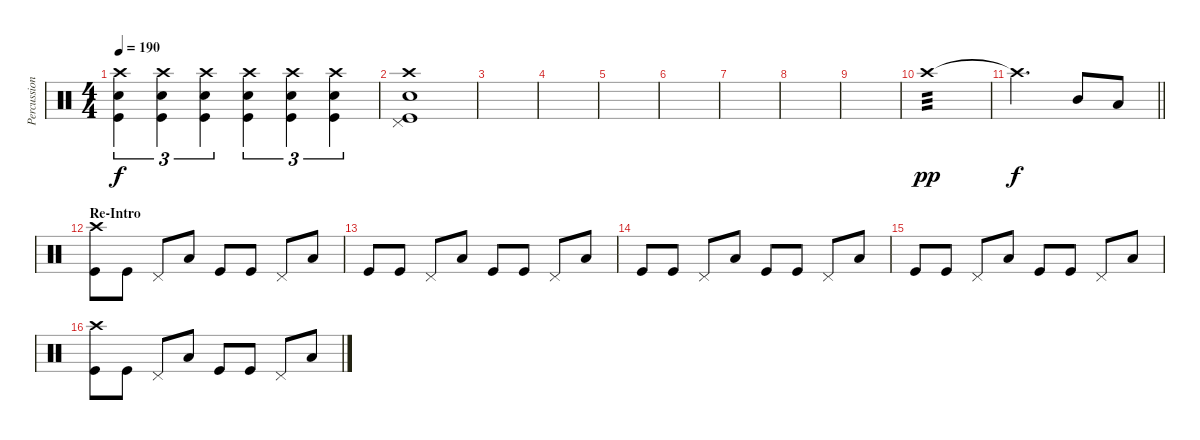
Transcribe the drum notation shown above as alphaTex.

\track ("Percussion" "Percussion") {instrument percussion}
\staff {score}
\articulation defaults
\ts (4 4)
\tempo 190
\clef neutral
\ks c
("Crash high (hit)" "Snare (hit) 2" "Kick (hit)").4{tu (3 2) dy f} ("Crash high (hit)" "Snare (hit) 2" "Kick (hit)").4{tu (3 2)} ("Crash high (hit)" "Snare (hit) 2" "Kick (hit)").4{tu (3 2)} ("Crash high (hit)" "Snare (hit) 2" "Kick (hit)").4{tu (3 2)} ("Crash high (hit)" "Snare (hit) 2" "Kick (hit)").4{tu (3 2)} ("Crash high (hit)" "Snare (hit) 2" "Kick (hit)").4{tu (3 2)} |
("Crash high (hit)" "Pedal Hi-Hat (hit)" "Snare (hit) 2" "Kick (hit)").1 |
|
|
|
|
|
|
|
"Crash high (hit)".1{tp 3 dy pp} |
\barLineRight lightlight "Crash high (hit)"{t}.2{d dy f} "Mid Tom (hit)".8 "Low Tom (hit)".8
|
\section ("" "Re-Intro")
("Crash high (hit)" "Kick (hit)").8 "Kick (hit)".8 "Pedal Hi-Hat (hit)".8 "Low Tom (hit)".8 "Kick (hit)".8 "Kick (hit)".8 "Pedal Hi-Hat (hit)".8 "Low Tom (hit)".8 |
"Kick (hit)".8 "Kick (hit)".8 "Pedal Hi-Hat (hit)".8 "Low Tom (hit)".8 "Kick (hit)".8 "Kick (hit)".8 "Pedal Hi-Hat (hit)".8 "Low Tom (hit)".8 |
"Kick (hit)".8 "Kick (hit)".8 "Pedal Hi-Hat (hit)".8 "Low Tom (hit)".8 "Kick (hit)".8 "Kick (hit)".8 "Pedal Hi-Hat (hit)".8 "Low Tom (hit)".8 |
"Kick (hit)".8 "Kick (hit)".8 "Pedal Hi-Hat (hit)".8 "Low Tom (hit)".8 "Kick (hit)".8 "Kick (hit)".8 "Pedal Hi-Hat (hit)".8 "Low Tom (hit)".8 |
("Crash high (hit)" "Kick (hit)").8 "Kick (hit)".8 "Pedal Hi-Hat (hit)".8 "Low Tom (hit)".8 "Kick (hit)".8 "Kick (hit)".8 "Pedal Hi-Hat (hit)".8 "Low Tom (hit)".8
